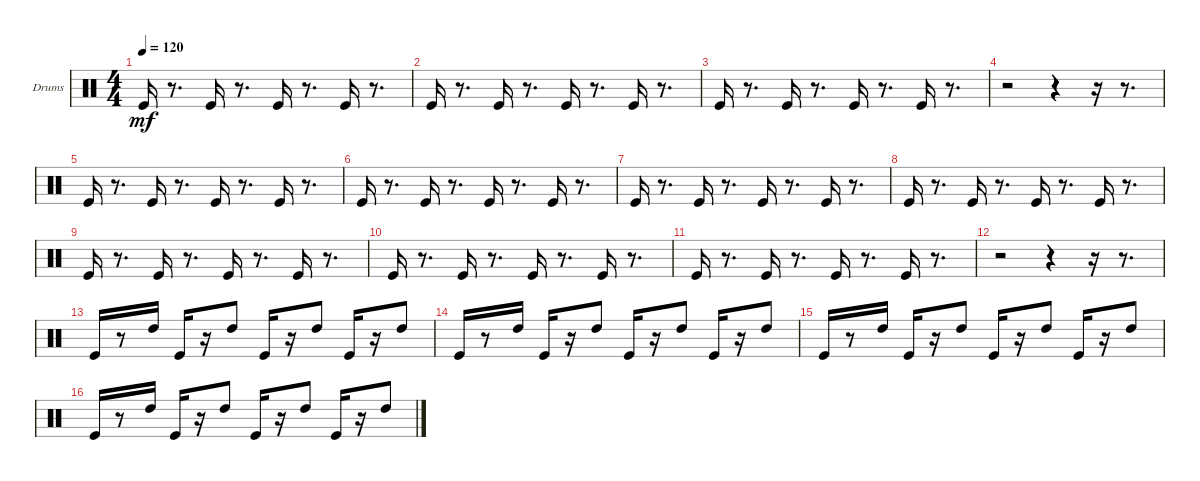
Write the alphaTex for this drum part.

\bracketExtendMode groupsimilarinstruments
\firstSystemTrackNameOrientation horizontal
\otherSystemsTrackNameOrientation horizontal
\track ("Drums" "Drums") {instrument percussion}
\staff {score}
\articulation defaults
\ts (4 4)
\tempo 120
\clef neutral
\ks c "Kick (hit)".16{dy mf}
r.8{d} "Kick (hit)".16 r.8{d} "Kick (hit)".16 r.8{d} "Kick (hit)".16 r.8{d} |
"Kick (hit)".16 r.8{d} "Kick (hit)".16 r.8{d} "Kick (hit)".16 r.8{d} "Kick (hit)".16 r.8{d} |
"Kick (hit)".16 r.8{d} "Kick (hit)".16 r.8{d} "Kick (hit)".16 r.8{d} "Kick (hit)".16 r.8{d} |
r.2 r.4 r.16 r.8{d} |
"Kick (hit)".16 r.8{d} "Kick (hit)".16 r.8{d} "Kick (hit)".16 r.8{d} "Kick (hit)".16 r.8{d} |
"Kick (hit)".16 r.8{d} "Kick (hit)".16 r.8{d} "Kick (hit)".16 r.8{d} "Kick (hit)".16 r.8{d} |
"Kick (hit)".16 r.8{d} "Kick (hit)".16 r.8{d} "Kick (hit)".16 r.8{d} "Kick (hit)".16 r.8{d} |
"Kick (hit)".16 r.8{d} "Kick (hit)".16 r.8{d} "Kick (hit)".16 r.8{d} "Kick (hit)".16 r.8{d} |
"Kick (hit)".16 r.8{d} "Kick (hit)".16 r.8{d} "Kick (hit)".16 r.8{d} "Kick (hit)".16 r.8{d} |
"Kick (hit)".16 r.8{d} "Kick (hit)".16 r.8{d} "Kick (hit)".16 r.8{d} "Kick (hit)".16 r.8{d} |
"Kick (hit)".16 r.8{d} "Kick (hit)".16 r.8{d} "Kick (hit)".16 r.8{d} "Kick (hit)".16 r.8{d} |
r.2 r.4 r.16 r.8{d} |
"Kick (hit)".16 r.8 "High Tom (hit)".16 "Kick (hit)".16 r.16 "High Tom (hit)".8 "Kick (hit)".16 r.16 "High Tom (hit)".8 "Kick (hit)".16 r.16 "High Tom (hit)".8 |
"Kick (hit)".16 r.8 "High Tom (hit)".16 "Kick (hit)".16 r.16 "High Tom (hit)".8 "Kick (hit)".16 r.16 "High Tom (hit)".8 "Kick (hit)".16 r.16 "High Tom (hit)".8 |
"Kick (hit)".16 r.8 "High Tom (hit)".16 "Kick (hit)".16 r.16 "High Tom (hit)".8 "Kick (hit)".16 r.16 "High Tom (hit)".8 "Kick (hit)".16 r.16 "High Tom (hit)".8 |
"Kick (hit)".16 r.8 "High Tom (hit)".16 "Kick (hit)".16 r.16 "High Tom (hit)".8 "Kick (hit)".16 r.16 "High Tom (hit)".8 "Kick (hit)".16 r.16 "High Tom (hit)".8
